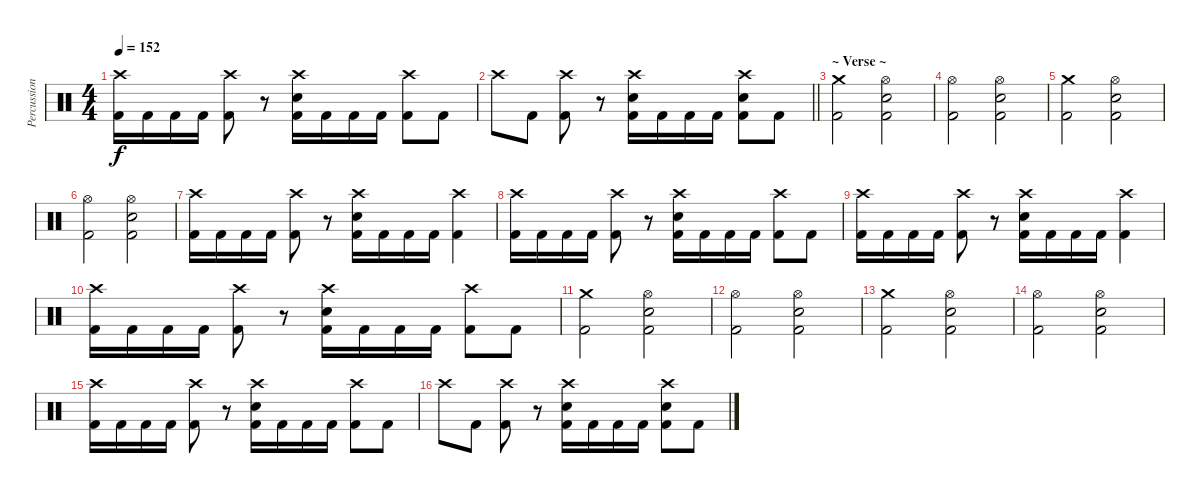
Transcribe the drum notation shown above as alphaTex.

\track ("Percussion" "Percussion") {instrument percussion}
\staff {score}
\articulation defaults
\ts (4 4)
\tempo 152
\clef neutral
\ks c
("Crash high (hit)" "Kick (hit) 2").16{dy f} "Kick (hit) 2".16 "Kick (hit) 2".16 "Kick (hit) 2".16 ("Crash high (hit)" "Kick (hit) 2").8 r.8 ("Crash high (hit)" "Electric Snare (hit)" "Kick (hit) 2").16 "Kick (hit) 2".16 "Kick (hit) 2".16 "Kick (hit) 2".16 ("Crash high (hit)" "Kick (hit) 2").8 "Kick (hit) 2".8 |
\barLineRight lightlight "Crash high (hit)".8 "Kick (hit) 2".8
("Crash high (hit)" "Kick (hit) 2").8 r.8 ("Crash high (hit)" "Electric Snare (hit)" "Kick (hit) 2").16 "Kick (hit) 2".16 "Kick (hit) 2".16 "Kick (hit) 2".16 ("Crash high (hit)" "Electric Snare (hit)" "Kick (hit) 2").8 "Kick (hit) 2".8 |
\section ("" "~ Verse ~")
("Crash medium (hit)" "Kick (hit) 2").2 ("Hi-Hat (open)" "Electric Snare (hit)" "Kick (hit) 2").2 |
("Hi-Hat (open)" "Kick (hit) 2").2 ("Hi-Hat (open)" "Electric Snare (hit)" "Kick (hit) 2").2 |
("Crash medium (hit)" "Kick (hit) 2").2 ("Hi-Hat (open)" "Electric Snare (hit)" "Kick (hit) 2").2 |
("Hi-Hat (open)" "Kick (hit) 2").2 ("Hi-Hat (open)" "Electric Snare (hit)" "Kick (hit) 2").2 |
("Crash high (hit)" "Kick (hit) 2").16 "Kick (hit) 2".16 "Kick (hit) 2".16 "Kick (hit) 2".16 ("Crash high (hit)" "Kick (hit) 2").8 r.8 ("Crash high (hit)" "Electric Snare (hit)" "Kick (hit) 2").16 "Kick (hit) 2".16 "Kick (hit) 2".16 "Kick (hit) 2".16 ("Crash high (hit)" "Kick (hit) 2").4 |
("Crash high (hit)" "Kick (hit) 2").16 "Kick (hit) 2".16 "Kick (hit) 2".16 "Kick (hit) 2".16 ("Crash high (hit)" "Kick (hit) 2").8 r.8 ("Crash high (hit)" "Electric Snare (hit)" "Kick (hit) 2").16 "Kick (hit) 2".16 "Kick (hit) 2".16 "Kick (hit) 2".16 ("Crash high (hit)" "Kick (hit) 2").8 "Kick (hit) 2".8 |
("Crash high (hit)" "Kick (hit) 2").16 "Kick (hit) 2".16 "Kick (hit) 2".16 "Kick (hit) 2".16 ("Crash high (hit)" "Kick (hit) 2").8 r.8 ("Crash high (hit)" "Electric Snare (hit)" "Kick (hit) 2").16 "Kick (hit) 2".16 "Kick (hit) 2".16 "Kick (hit) 2".16 ("Crash high (hit)" "Kick (hit) 2").4 |
("Crash high (hit)" "Kick (hit) 2").16 "Kick (hit) 2".16 "Kick (hit) 2".16 "Kick (hit) 2".16 ("Crash high (hit)" "Kick (hit) 2").8 r.8 ("Crash high (hit)" "Electric Snare (hit)" "Kick (hit) 2").16 "Kick (hit) 2".16 "Kick (hit) 2".16 "Kick (hit) 2".16 ("Crash high (hit)" "Kick (hit) 2").8 "Kick (hit) 2".8 |
("Crash medium (hit)" "Kick (hit) 2").2 ("Hi-Hat (open)" "Electric Snare (hit)" "Kick (hit) 2").2 |
("Hi-Hat (open)" "Kick (hit) 2").2 ("Hi-Hat (open)" "Electric Snare (hit)" "Kick (hit) 2").2 |
("Crash medium (hit)" "Kick (hit) 2").2 ("Hi-Hat (open)" "Electric Snare (hit)" "Kick (hit) 2").2 |
("Hi-Hat (open)" "Kick (hit) 2").2 ("Hi-Hat (open)" "Electric Snare (hit)" "Kick (hit) 2").2 |
("Crash high (hit)" "Kick (hit) 2").16 "Kick (hit) 2".16 "Kick (hit) 2".16 "Kick (hit) 2".16 ("Crash high (hit)" "Kick (hit) 2").8 r.8 ("Crash high (hit)" "Electric Snare (hit)" "Kick (hit) 2").16 "Kick (hit) 2".16 "Kick (hit) 2".16 "Kick (hit) 2".16 ("Crash high (hit)" "Kick (hit) 2").8 "Kick (hit) 2".8 |
"Crash high (hit)".8 "Kick (hit) 2".8 ("Crash high (hit)" "Kick (hit) 2").8 r.8 ("Crash high (hit)" "Electric Snare (hit)" "Kick (hit) 2").16 "Kick (hit) 2".16 "Kick (hit) 2".16 "Kick (hit) 2".16 ("Crash high (hit)" "Electric Snare (hit)" "Kick (hit) 2").8 "Kick (hit) 2".8
